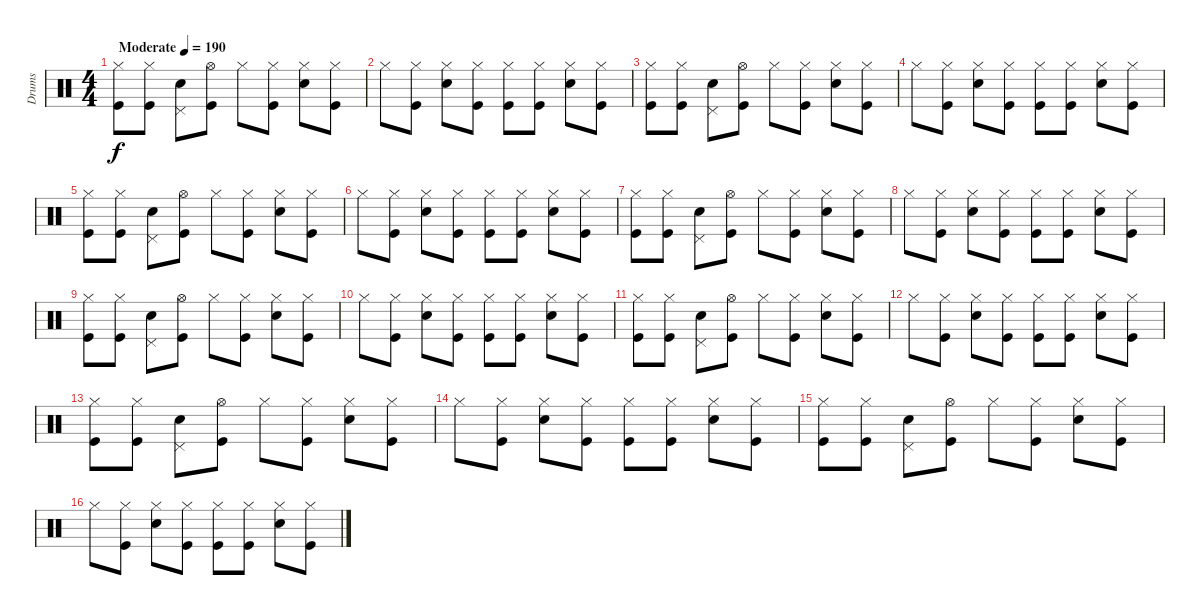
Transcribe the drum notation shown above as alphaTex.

\track ("Drums" "Drums") {instrument percussion}
\staff {score}
\articulation defaults
\ts (4 4)
\tempo (190 "Moderate")
\clef neutral
\ks c
("Kick (hit)" "Hi-Hat (closed)").8{dy f} ("Kick (hit)" "Hi-Hat (closed)").8 ("Electric Snare (hit)" "Pedal Hi-Hat (hit)").8 ("Kick (hit)" "Hi-Hat (open)").8 "Hi-Hat (closed)".8 ("Kick (hit)" "Hi-Hat (closed)").8 ("Electric Snare (hit)" "Hi-Hat (closed)").8 ("Kick (hit)" "Hi-Hat (closed)").8 |
"Hi-Hat (closed)".8 ("Kick (hit)" "Hi-Hat (closed)").8 ("Electric Snare (hit)" "Hi-Hat (closed)").8 ("Kick (hit)" "Hi-Hat (closed)").8 ("Kick (hit)" "Hi-Hat (closed)").8 ("Kick (hit)" "Hi-Hat (closed)").8 ("Electric Snare (hit)" "Hi-Hat (closed)").8 ("Kick (hit)" "Hi-Hat (closed)").8 |
("Kick (hit)" "Hi-Hat (closed)").8 ("Kick (hit)" "Hi-Hat (closed)").8 ("Electric Snare (hit)" "Pedal Hi-Hat (hit)").8 ("Kick (hit)" "Hi-Hat (open)").8 "Hi-Hat (closed)".8 ("Kick (hit)" "Hi-Hat (closed)").8 ("Electric Snare (hit)" "Hi-Hat (closed)").8 ("Kick (hit)" "Hi-Hat (closed)").8 |
"Hi-Hat (closed)".8 ("Kick (hit)" "Hi-Hat (closed)").8 ("Electric Snare (hit)" "Hi-Hat (closed)").8 ("Kick (hit)" "Hi-Hat (closed)").8 ("Kick (hit)" "Hi-Hat (closed)").8 ("Kick (hit)" "Hi-Hat (closed)").8 ("Electric Snare (hit)" "Hi-Hat (closed)").8 ("Kick (hit)" "Hi-Hat (closed)").8 |
("Kick (hit)" "Hi-Hat (closed)").8 ("Kick (hit)" "Hi-Hat (closed)").8 ("Electric Snare (hit)" "Pedal Hi-Hat (hit)").8 ("Kick (hit)" "Hi-Hat (open)").8 "Hi-Hat (closed)".8 ("Kick (hit)" "Hi-Hat (closed)").8 ("Electric Snare (hit)" "Hi-Hat (closed)").8 ("Kick (hit)" "Hi-Hat (closed)").8 |
"Hi-Hat (closed)".8 ("Kick (hit)" "Hi-Hat (closed)").8 ("Electric Snare (hit)" "Hi-Hat (closed)").8 ("Kick (hit)" "Hi-Hat (closed)").8 ("Kick (hit)" "Hi-Hat (closed)").8 ("Kick (hit)" "Hi-Hat (closed)").8 ("Electric Snare (hit)" "Hi-Hat (closed)").8 ("Kick (hit)" "Hi-Hat (closed)").8 |
("Kick (hit)" "Hi-Hat (closed)").8 ("Kick (hit)" "Hi-Hat (closed)").8 ("Electric Snare (hit)" "Pedal Hi-Hat (hit)").8 ("Kick (hit)" "Hi-Hat (open)").8 "Hi-Hat (closed)".8 ("Kick (hit)" "Hi-Hat (closed)").8 ("Electric Snare (hit)" "Hi-Hat (closed)").8 ("Kick (hit)" "Hi-Hat (closed)").8 |
"Hi-Hat (closed)".8 ("Kick (hit)" "Hi-Hat (closed)").8 ("Electric Snare (hit)" "Hi-Hat (closed)").8 ("Kick (hit)" "Hi-Hat (closed)").8 ("Kick (hit)" "Hi-Hat (closed)").8 ("Kick (hit)" "Hi-Hat (closed)").8 ("Electric Snare (hit)" "Hi-Hat (closed)").8 ("Kick (hit)" "Hi-Hat (closed)").8 |
("Kick (hit)" "Hi-Hat (closed)").8 ("Kick (hit)" "Hi-Hat (closed)").8 ("Electric Snare (hit)" "Pedal Hi-Hat (hit)").8 ("Kick (hit)" "Hi-Hat (open)").8 "Hi-Hat (closed)".8 ("Kick (hit)" "Hi-Hat (closed)").8 ("Electric Snare (hit)" "Hi-Hat (closed)").8 ("Kick (hit)" "Hi-Hat (closed)").8 |
"Hi-Hat (closed)".8 ("Kick (hit)" "Hi-Hat (closed)").8 ("Electric Snare (hit)" "Hi-Hat (closed)").8 ("Kick (hit)" "Hi-Hat (closed)").8 ("Kick (hit)" "Hi-Hat (closed)").8 ("Kick (hit)" "Hi-Hat (closed)").8 ("Electric Snare (hit)" "Hi-Hat (closed)").8 ("Kick (hit)" "Hi-Hat (closed)").8 |
("Kick (hit)" "Hi-Hat (closed)").8 ("Kick (hit)" "Hi-Hat (closed)").8 ("Electric Snare (hit)" "Pedal Hi-Hat (hit)").8 ("Kick (hit)" "Hi-Hat (open)").8 "Hi-Hat (closed)".8 ("Kick (hit)" "Hi-Hat (closed)").8 ("Electric Snare (hit)" "Hi-Hat (closed)").8 ("Kick (hit)" "Hi-Hat (closed)").8 |
"Hi-Hat (closed)".8 ("Kick (hit)" "Hi-Hat (closed)").8 ("Electric Snare (hit)" "Hi-Hat (closed)").8 ("Kick (hit)" "Hi-Hat (closed)").8 ("Kick (hit)" "Hi-Hat (closed)").8 ("Kick (hit)" "Hi-Hat (closed)").8 ("Electric Snare (hit)" "Hi-Hat (closed)").8 ("Kick (hit)" "Hi-Hat (closed)").8 |
("Kick (hit)" "Hi-Hat (closed)").8 ("Kick (hit)" "Hi-Hat (closed)").8 ("Electric Snare (hit)" "Pedal Hi-Hat (hit)").8 ("Kick (hit)" "Hi-Hat (open)").8 "Hi-Hat (closed)".8 ("Kick (hit)" "Hi-Hat (closed)").8 ("Electric Snare (hit)" "Hi-Hat (closed)").8 ("Kick (hit)" "Hi-Hat (closed)").8 |
"Hi-Hat (closed)".8 ("Kick (hit)" "Hi-Hat (closed)").8 ("Electric Snare (hit)" "Hi-Hat (closed)").8 ("Kick (hit)" "Hi-Hat (closed)").8 ("Kick (hit)" "Hi-Hat (closed)").8 ("Kick (hit)" "Hi-Hat (closed)").8 ("Electric Snare (hit)" "Hi-Hat (closed)").8 ("Kick (hit)" "Hi-Hat (closed)").8 |
("Kick (hit)" "Hi-Hat (closed)").8 ("Kick (hit)" "Hi-Hat (closed)").8 ("Electric Snare (hit)" "Pedal Hi-Hat (hit)").8 ("Kick (hit)" "Hi-Hat (open)").8 "Hi-Hat (closed)".8 ("Kick (hit)" "Hi-Hat (closed)").8 ("Electric Snare (hit)" "Hi-Hat (closed)").8 ("Kick (hit)" "Hi-Hat (closed)").8 |
"Hi-Hat (closed)".8 ("Kick (hit)" "Hi-Hat (closed)").8 ("Electric Snare (hit)" "Hi-Hat (closed)").8 ("Kick (hit)" "Hi-Hat (closed)").8 ("Kick (hit)" "Hi-Hat (closed)").8 ("Kick (hit)" "Hi-Hat (closed)").8 ("Electric Snare (hit)" "Hi-Hat (closed)").8 ("Kick (hit)" "Hi-Hat (closed)").8
